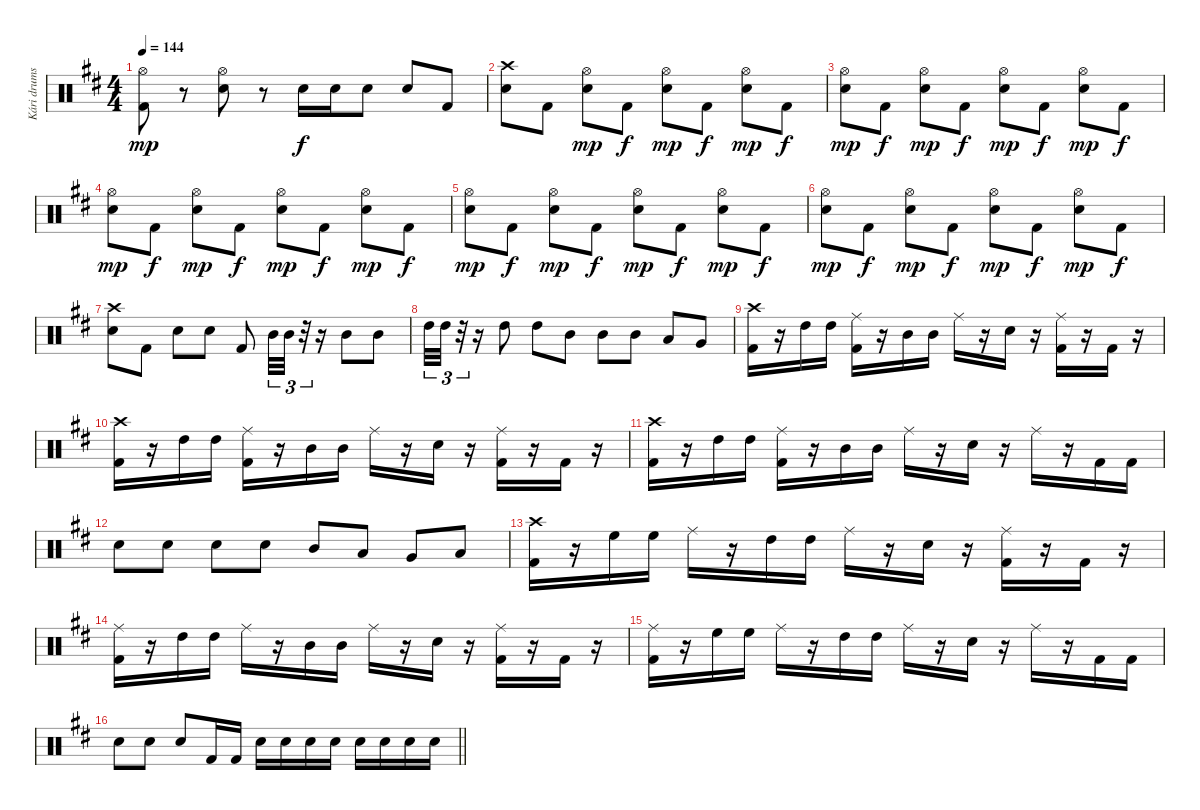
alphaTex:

\track ("Kári drums" "Kári drums") {instrument percussion}
\staff {score}
\articulation defaults
\ts (4 4)
\tempo 144
\clef neutral
\ks bminor
("Hi-Hat (open)" "Kick (hit) 2").8{dy mp} r.8 ("Hi-Hat (open)" "Snare (hit) 2").8 r.8 "Snare (hit) 2".16{dy f} "Snare (hit) 2".16 "Snare (hit) 2".8 "Snare (hit) 2".8 "Kick (hit) 2".8 |
("Crash high (hit)" "Snare (hit) 2").8 "Kick (hit) 2".8 ("Hi-Hat (open)" "Snare (hit) 2").8{dy mp} "Kick (hit) 2".8{dy f} ("Hi-Hat (open)" "Snare (hit) 2").8{dy mp} "Kick (hit) 2".8{dy f} ("Hi-Hat (open)" "Snare (hit) 2").8{dy mp} "Kick (hit) 2".8{dy f} |
("Hi-Hat (open)" "Snare (hit) 2").8{dy mp} "Kick (hit) 2".8{dy f} ("Hi-Hat (open)" "Snare (hit) 2").8{dy mp} "Kick (hit) 2".8{dy f} ("Hi-Hat (open)" "Snare (hit) 2").8{dy mp} "Kick (hit) 2".8{dy f} ("Hi-Hat (open)" "Snare (hit) 2").8{dy mp} "Kick (hit) 2".8{dy f} |
("Hi-Hat (open)" "Snare (hit) 2").8{dy mp} "Kick (hit) 2".8{dy f} ("Hi-Hat (open)" "Snare (hit) 2").8{dy mp} "Kick (hit) 2".8{dy f} ("Hi-Hat (open)" "Snare (hit) 2").8{dy mp} "Kick (hit) 2".8{dy f} ("Hi-Hat (open)" "Snare (hit) 2").8{dy mp} "Kick (hit) 2".8{dy f} |
("Hi-Hat (open)" "Snare (hit) 2").8{dy mp} "Kick (hit) 2".8{dy f} ("Hi-Hat (open)" "Snare (hit) 2").8{dy mp} "Kick (hit) 2".8{dy f} ("Hi-Hat (open)" "Snare (hit) 2").8{dy mp} "Kick (hit) 2".8{dy f} ("Hi-Hat (open)" "Snare (hit) 2").8{dy mp} "Kick (hit) 2".8{dy f} |
("Hi-Hat (open)" "Snare (hit) 2").8{dy mp} "Kick (hit) 2".8{dy f} ("Hi-Hat (open)" "Snare (hit) 2").8{dy mp} "Kick (hit) 2".8{dy f} ("Hi-Hat (open)" "Snare (hit) 2").8{dy mp} "Kick (hit) 2".8{dy f} ("Hi-Hat (open)" "Snare (hit) 2").8{dy mp} "Kick (hit) 2".8{dy f} |
("Crash high (hit)" "Snare (hit) 2").8 "Kick (hit) 2".8 "Snare (hit) 2".8 "Snare (hit) 2".8 "Kick (hit) 2".8 "Mid Tom (hit)".32{tu (3 2)} "Mid Tom (hit)".32{tu (3 2)} r.32{tu (3 2)} r.16 "Mid Tom (hit)".8 "Mid Tom (hit)".8 |
"High Tom (hit)".32{tu (3 2)} "High Tom (hit)".32{tu (3 2)} r.32{tu (3 2)} r.16 "High Tom (hit)".8 "High Tom (hit)".8 "Mid Tom (hit)".8 "Mid Tom (hit)".8 "Mid Tom (hit)".8 "Low Tom (hit)".8 "Very Low Tom (hit)".8 |
("Crash high (hit)" "Kick (hit) 2").16 r.16 "High Tom (hit)".16 "High Tom (hit)".16 ("Ride (middle)" "Kick (hit) 2").16 r.16 "Mid Tom (hit)".16 "Mid Tom (hit)".16 "Ride (middle)".16 r.16 "Snare (hit) 2".16 r.16 ("Ride (middle)" "Kick (hit) 2").16 r.16 "Kick (hit) 2".16 r.16 |
("Crash high (hit)" "Kick (hit) 2").16 r.16 "High Tom (hit)".16 "High Tom (hit)".16 ("Ride (middle)" "Kick (hit) 2").16 r.16 "Mid Tom (hit)".16 "Mid Tom (hit)".16 "Ride (middle)".16 r.16 "Snare (hit) 2".16 r.16 ("Ride (middle)" "Kick (hit) 2").16 r.16 "Kick (hit) 2".16 r.16 |
("Crash high (hit)" "Kick (hit) 2").16 r.16 "High Tom (hit)".16 "High Tom (hit)".16 ("Ride (middle)" "Kick (hit) 2").16 r.16 "Mid Tom (hit)".16 "Mid Tom (hit)".16 "Ride (middle)".16 r.16 "Snare (hit) 2".16 r.16 "Ride (middle)".16 r.16 "Kick (hit) 2".16 "Kick (hit) 2".16 |
"Snare (hit) 2".8 "Snare (hit) 2".8 "Snare (hit) 2".8 "Snare (hit) 2".8 "Mid Tom (hit)".8 "Low Tom (hit)".8 "Very Low Tom (hit)".8 "Low Floor Tom (hit)".8 |
("Crash high (hit)" "Kick (hit) 2").16 r.16 "High Floor Tom (hit)".16 "High Floor Tom (hit)".16 "Ride (middle)".16 r.16 "High Tom (hit)".16 "High Tom (hit)".16 "Ride (middle)".16 r.16 "Snare (hit) 2".16 r.16 ("Ride (middle)" "Kick (hit) 2").16 r.16 "Kick (hit) 2".16 r.16 |
("Ride (middle)" "Kick (hit) 2").16 r.16 "High Tom (hit)".16 "High Tom (hit)".16 "Ride (middle)".16 r.16 "Mid Tom (hit)".16 "Mid Tom (hit)".16 "Ride (middle)".16 r.16 "Snare (hit) 2".16 r.16 ("Ride (middle)" "Kick (hit) 2").16 r.16 "Kick (hit) 2".16 r.16 |
("Ride (middle)" "Kick (hit) 2").16 r.16 "High Floor Tom (hit)".16 "High Floor Tom (hit)".16 "Ride (middle)".16 r.16 "High Tom (hit)".16 "High Tom (hit)".16 "Ride (middle)".16 r.16 "Snare (hit) 2".16 r.16 "Ride (middle)".16 r.16 "Kick (hit) 2".16 "Kick (hit) 2".16 |
\barLineRight lightlight "Snare (hit) 2".8 "Snare (hit) 2".8 "Snare (hit) 2".8 "Kick (hit) 2".16 "Kick (hit) 2".16 "Snare (hit) 2".16 "Snare (hit) 2".16 "Snare (hit) 2".16 "Snare (hit) 2".16 "Snare (hit) 2".16 "Snare (hit) 2".16 "Snare (hit) 2".16 "Snare (hit) 2".16
